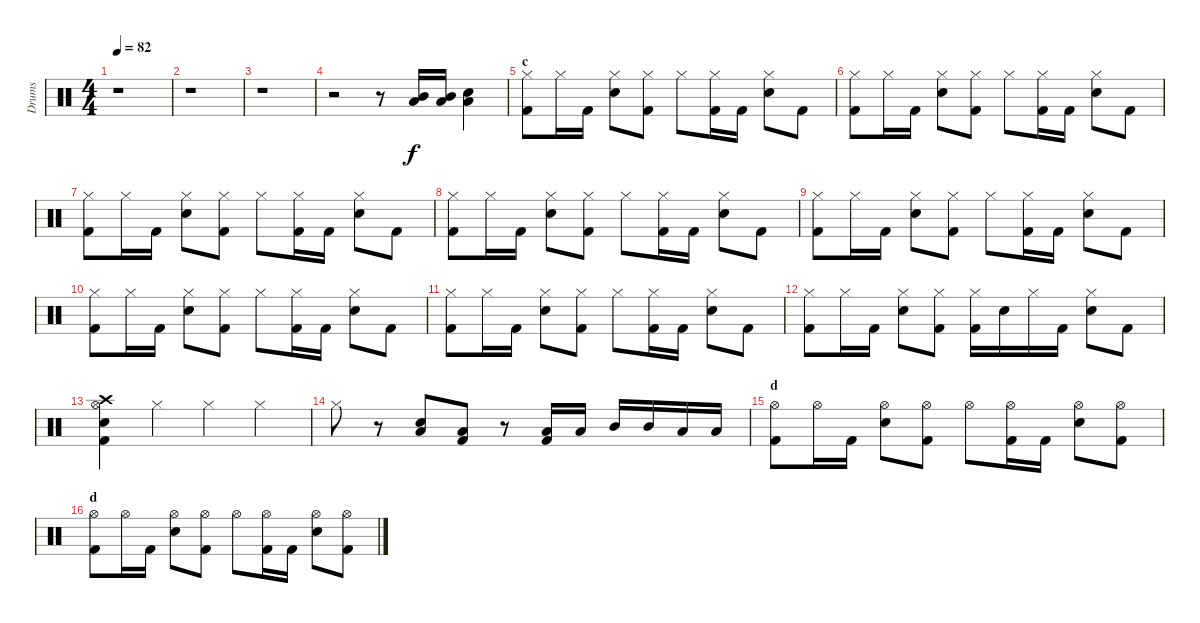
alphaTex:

\track ("Drums" "Drums") {instrument percussion}
\staff {score}
\articulation defaults
\ts (4 4)
\tempo 82
\clef neutral
\ks c
r.1{dy f} |
r.1 |
r.1 |
r.2 r.8 ("Mid Tom (hit)" "Low Tom (hit)").16 ("Mid Tom (hit)" "Low Tom (hit)").16 ("Snare (hit) 2" "Low Tom (hit)").4 |
\section ("" "c")
("Hi-Hat (closed)" "Kick (hit) 2").8 "Hi-Hat (closed)".16 "Kick (hit) 2".16 ("Hi-Hat (closed)" "Snare (hit) 2").8 ("Hi-Hat (closed)" "Kick (hit) 2").8 "Hi-Hat (closed)".8 ("Hi-Hat (closed)" "Kick (hit) 2").16 "Kick (hit) 2".16 ("Hi-Hat (closed)" "Snare (hit) 2").8 "Kick (hit) 2".8 |
("Hi-Hat (closed)" "Kick (hit) 2").8 "Hi-Hat (closed)".16 "Kick (hit) 2".16 ("Hi-Hat (closed)" "Snare (hit) 2").8 ("Hi-Hat (closed)" "Kick (hit) 2").8 "Hi-Hat (closed)".8 ("Hi-Hat (closed)" "Kick (hit) 2").16 "Kick (hit) 2".16 ("Hi-Hat (closed)" "Snare (hit) 2").8 "Kick (hit) 2".8 |
("Hi-Hat (closed)" "Kick (hit) 2").8 "Hi-Hat (closed)".16 "Kick (hit) 2".16 ("Hi-Hat (closed)" "Snare (hit) 2").8 ("Hi-Hat (closed)" "Kick (hit) 2").8 "Hi-Hat (closed)".8 ("Hi-Hat (closed)" "Kick (hit) 2").16 "Kick (hit) 2".16 ("Hi-Hat (closed)" "Snare (hit) 2").8 "Kick (hit) 2".8 |
("Hi-Hat (closed)" "Kick (hit) 2").8 "Hi-Hat (closed)".16 "Kick (hit) 2".16 ("Hi-Hat (closed)" "Snare (hit) 2").8 ("Hi-Hat (closed)" "Kick (hit) 2").8 "Hi-Hat (closed)".8 ("Hi-Hat (closed)" "Kick (hit) 2").16 "Kick (hit) 2".16 ("Hi-Hat (closed)" "Snare (hit) 2").8 "Kick (hit) 2".8 |
("Hi-Hat (closed)" "Kick (hit) 2").8 "Hi-Hat (closed)".16 "Kick (hit) 2".16 ("Hi-Hat (closed)" "Snare (hit) 2").8 ("Hi-Hat (closed)" "Kick (hit) 2").8 "Hi-Hat (closed)".8 ("Hi-Hat (closed)" "Kick (hit) 2").16 "Kick (hit) 2".16 ("Hi-Hat (closed)" "Snare (hit) 2").8 "Kick (hit) 2".8 |
("Hi-Hat (closed)" "Kick (hit) 2").8 "Hi-Hat (closed)".16 "Kick (hit) 2".16 ("Hi-Hat (closed)" "Snare (hit) 2").8 ("Hi-Hat (closed)" "Kick (hit) 2").8 "Hi-Hat (closed)".8 ("Hi-Hat (closed)" "Kick (hit) 2").16 "Kick (hit) 2".16 ("Hi-Hat (closed)" "Snare (hit) 2").8 "Kick (hit) 2".8 |
("Hi-Hat (closed)" "Kick (hit) 2").8 "Hi-Hat (closed)".16 "Kick (hit) 2".16 ("Hi-Hat (closed)" "Snare (hit) 2").8 ("Hi-Hat (closed)" "Kick (hit) 2").8 "Hi-Hat (closed)".8 ("Hi-Hat (closed)" "Kick (hit) 2").16 "Kick (hit) 2".16 ("Hi-Hat (closed)" "Snare (hit) 2").8 "Kick (hit) 2".8 |
("Hi-Hat (closed)" "Kick (hit) 2").8 "Hi-Hat (closed)".16 "Kick (hit) 2".16 ("Hi-Hat (closed)" "Snare (hit) 2").8 ("Hi-Hat (closed)" "Kick (hit) 2").8 ("Hi-Hat (closed)" "Kick (hit) 2").16 "Snare (hit) 2".16 "Hi-Hat (closed)".16 "Kick (hit) 2".16 ("Hi-Hat (closed)" "Snare (hit) 2").8 "Kick (hit) 2".8 |
("Crash high (hit)" "Snare (hit) 2" "Hi-Hat (open)" "Kick (hit) 2").4 "Hi-Hat (closed)".4 "Hi-Hat (closed)".4 "Hi-Hat (closed)".4 |
"Hi-Hat (closed)".8 r.8 ("Snare (hit) 2" "Low Tom (hit)").8 ("Low Tom (hit)" "Kick (hit) 2").8 r.8 ("Low Tom (hit)" "Kick (hit) 2").16 "Low Tom (hit)".16 "Mid Tom (hit)".16 "Mid Tom (hit)".16 "Low Tom (hit)".16 "Low Tom (hit)".16 |
\section ("" "d")
("Hi-Hat (open)" "Kick (hit) 2").8 "Hi-Hat (open)".16 "Kick (hit) 2".16 ("Hi-Hat (open)" "Snare (hit) 2").8 ("Hi-Hat (open)" "Kick (hit) 2").8 "Hi-Hat (open)".8 ("Hi-Hat (open)" "Kick (hit) 2").16 "Kick (hit) 2".16 ("Hi-Hat (open)" "Snare (hit) 2").8 ("Hi-Hat (open)" "Kick (hit) 2").8 |
\section ("" "d")
("Hi-Hat (open)" "Kick (hit) 2").8 "Hi-Hat (open)".16 "Kick (hit) 2".16 ("Hi-Hat (open)" "Snare (hit) 2").8 ("Hi-Hat (open)" "Kick (hit) 2").8 "Hi-Hat (open)".8 ("Hi-Hat (open)" "Kick (hit) 2").16 "Kick (hit) 2".16 ("Hi-Hat (open)" "Snare (hit) 2").8 ("Hi-Hat (open)" "Kick (hit) 2").8
